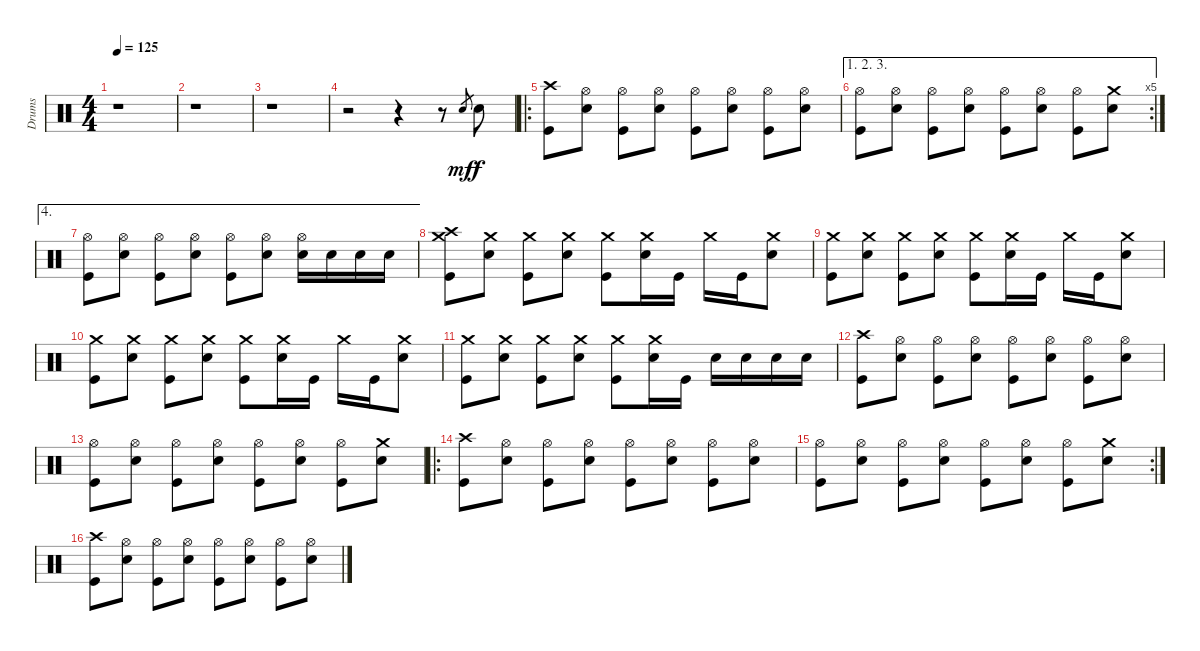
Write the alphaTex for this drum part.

\track ("Drums" "Drums") {instrument percussion}
\staff {score}
\articulation defaults
\ts (4 4)
\tempo 125
\clef neutral
\ks c
r.1{dy mf} |
r.1 |
r.1 |
r.2 r.4 r.8 "Electric Snare (hit)".8{gr} "Electric Snare (hit)".8{dy f} |
\ro
("Crash high (hit)" "Kick (hit)").8 ("Hi-Hat (open)" "Electric Snare (hit)").8 ("Hi-Hat (open)" "Kick (hit)").8 ("Hi-Hat (open)" "Electric Snare (hit)").8 ("Hi-Hat (open)" "Kick (hit)").8 ("Hi-Hat (open)" "Electric Snare (hit)").8 ("Hi-Hat (open)" "Kick (hit)").8 ("Hi-Hat (open)" "Electric Snare (hit)").8 |
\ae (1 2 3)
\rc 5
("Hi-Hat (open)" "Kick (hit)").8 ("Hi-Hat (open)" "Electric Snare (hit)").8 ("Hi-Hat (open)" "Kick (hit)").8 ("Hi-Hat (open)" "Electric Snare (hit)").8 ("Hi-Hat (open)" "Kick (hit)").8 ("Hi-Hat (open)" "Electric Snare (hit)").8 ("Hi-Hat (open)" "Kick (hit)").8 ("Crash medium (hit)" "Electric Snare (hit)").8 |
\ae 4
("Hi-Hat (open)" "Kick (hit)").8 ("Hi-Hat (open)" "Electric Snare (hit)").8 ("Hi-Hat (open)" "Kick (hit)").8 ("Hi-Hat (open)" "Electric Snare (hit)").8 ("Hi-Hat (open)" "Kick (hit)").8 ("Hi-Hat (open)" "Electric Snare (hit)").8 ("Hi-Hat (open)" "Electric Snare (hit)").16 "Electric Snare (hit)".16 "Electric Snare (hit)".16 "Electric Snare (hit)".16 |
("Crash high (hit)" "Crash medium (hit)" "Kick (hit)").8 ("Crash medium (hit)" "Electric Snare (hit)").8 ("Crash medium (hit)" "Kick (hit)").8 ("Crash medium (hit)" "Electric Snare (hit)").8 ("Crash medium (hit)" "Kick (hit)").8 ("Crash medium (hit)" "Electric Snare (hit)").16 "Kick (hit)".16 "Crash medium (hit)".16 "Kick (hit)".16 ("Crash medium (hit)" "Electric Snare (hit)").8 |
("Crash medium (hit)" "Kick (hit)").8 ("Crash medium (hit)" "Electric Snare (hit)").8 ("Crash medium (hit)" "Kick (hit)").8 ("Crash medium (hit)" "Electric Snare (hit)").8 ("Crash medium (hit)" "Kick (hit)").8 ("Crash medium (hit)" "Electric Snare (hit)").16 "Kick (hit)".16 "Crash medium (hit)".16 "Kick (hit)".16 ("Crash medium (hit)" "Electric Snare (hit)").8 |
("Crash medium (hit)" "Kick (hit)").8 ("Crash medium (hit)" "Electric Snare (hit)").8 ("Crash medium (hit)" "Kick (hit)").8 ("Crash medium (hit)" "Electric Snare (hit)").8 ("Crash medium (hit)" "Kick (hit)").8 ("Crash medium (hit)" "Electric Snare (hit)").16 "Kick (hit)".16 "Crash medium (hit)".16 "Kick (hit)".16 ("Crash medium (hit)" "Electric Snare (hit)").8 |
("Crash medium (hit)" "Kick (hit)").8 ("Crash medium (hit)" "Electric Snare (hit)").8 ("Crash medium (hit)" "Kick (hit)").8 ("Crash medium (hit)" "Electric Snare (hit)").8 ("Crash medium (hit)" "Kick (hit)").8 ("Crash medium (hit)" "Electric Snare (hit)").16 "Kick (hit)".16 "Electric Snare (hit)".16 "Electric Snare (hit)".16 "Electric Snare (hit)".16 "Electric Snare (hit)".16 |
("Crash high (hit)" "Kick (hit)").8 ("Hi-Hat (open)" "Electric Snare (hit)").8 ("Hi-Hat (open)" "Kick (hit)").8 ("Hi-Hat (open)" "Electric Snare (hit)").8 ("Hi-Hat (open)" "Kick (hit)").8 ("Hi-Hat (open)" "Electric Snare (hit)").8 ("Hi-Hat (open)" "Kick (hit)").8 ("Hi-Hat (open)" "Electric Snare (hit)").8 |
("Hi-Hat (open)" "Kick (hit)").8 ("Hi-Hat (open)" "Electric Snare (hit)").8 ("Hi-Hat (open)" "Kick (hit)").8 ("Hi-Hat (open)" "Electric Snare (hit)").8 ("Hi-Hat (open)" "Kick (hit)").8 ("Hi-Hat (open)" "Electric Snare (hit)").8 ("Hi-Hat (open)" "Kick (hit)").8 ("Crash medium (hit)" "Electric Snare (hit)").8 |
\ro
("Crash high (hit)" "Kick (hit)").8 ("Hi-Hat (open)" "Electric Snare (hit)").8 ("Hi-Hat (open)" "Kick (hit)").8 ("Hi-Hat (open)" "Electric Snare (hit)").8 ("Hi-Hat (open)" "Kick (hit)").8 ("Hi-Hat (open)" "Electric Snare (hit)").8 ("Hi-Hat (open)" "Kick (hit)").8 ("Hi-Hat (open)" "Electric Snare (hit)").8 |
\rc 2
("Hi-Hat (open)" "Kick (hit)").8 ("Hi-Hat (open)" "Electric Snare (hit)").8 ("Hi-Hat (open)" "Kick (hit)").8 ("Hi-Hat (open)" "Electric Snare (hit)").8 ("Hi-Hat (open)" "Kick (hit)").8 ("Hi-Hat (open)" "Electric Snare (hit)").8 ("Hi-Hat (open)" "Kick (hit)").8 ("Crash medium (hit)" "Electric Snare (hit)").8 |
("Crash high (hit)" "Kick (hit)").8 ("Hi-Hat (open)" "Electric Snare (hit)").8 ("Hi-Hat (open)" "Kick (hit)").8 ("Hi-Hat (open)" "Electric Snare (hit)").8 ("Hi-Hat (open)" "Kick (hit)").8 ("Hi-Hat (open)" "Electric Snare (hit)").8 ("Hi-Hat (open)" "Kick (hit)").8 ("Hi-Hat (open)" "Electric Snare (hit)").8
